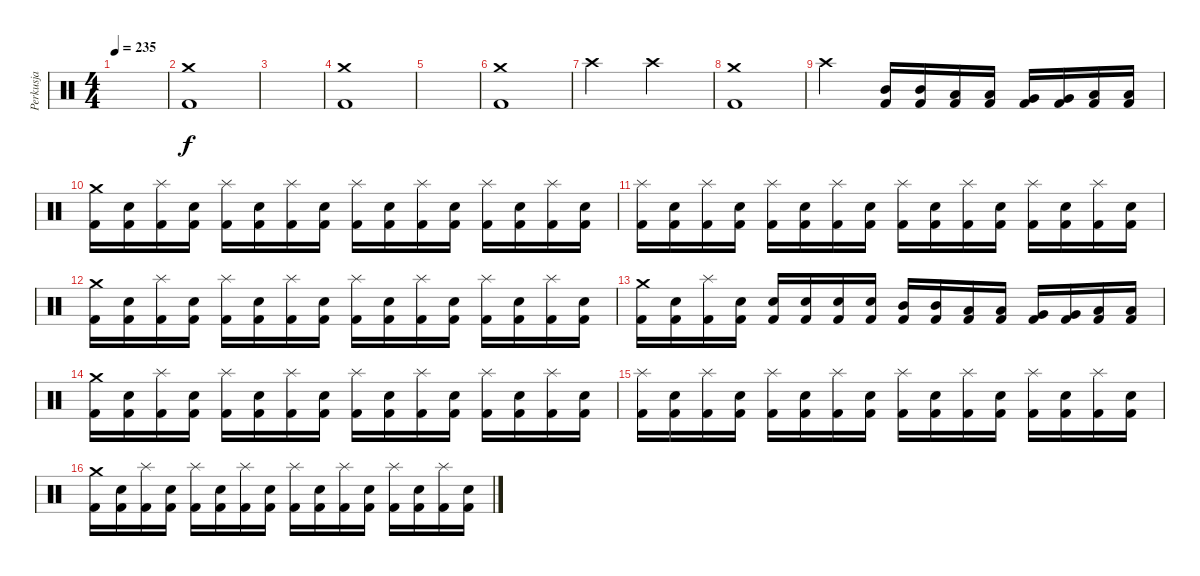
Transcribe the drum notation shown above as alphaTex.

\track ("Perkusja" "Perkusja") {instrument percussion}
\staff {score}
\articulation defaults
\ts (4 4)
\tempo 235
\clef neutral
\ks c
|
("Kick (hit) 2" "Crash medium (hit)").1 |
|
("Kick (hit) 2" "Crash medium (hit)").1 |
|
("Kick (hit) 2" "Crash medium (hit)").1 |
"Crash high (hit)".2 "Crash high (hit)".2 |
("Kick (hit) 2" "Crash medium (hit)").1 |
"Crash high (hit)".2 ("Mid Tom (hit)" "Kick (hit) 2").16 ("Mid Tom (hit)" "Kick (hit) 2").16 ("Low Tom (hit)" "Kick (hit) 2").16 ("Low Tom (hit)" "Kick (hit) 2").16 ("Very Low Tom (hit)" "Kick (hit) 2").16 ("Very Low Tom (hit)" "Kick (hit) 2").16 ("Low Floor Tom (hit)" "Kick (hit) 2").16 ("Low Floor Tom (hit)" "Kick (hit) 2").16 |
("Crash medium (hit)" "Kick (hit) 2").16 ("Snare (hit) 2" "Kick (hit) 2").16 ("Splash (hit)" "Kick (hit) 2").16 ("Snare (hit) 2" "Kick (hit) 2").16 ("Splash (hit)" "Kick (hit) 2").16 ("Snare (hit) 2" "Kick (hit) 2").16 ("Splash (hit)" "Kick (hit) 2").16 ("Snare (hit) 2" "Kick (hit) 2").16 ("Splash (hit)" "Kick (hit) 2").16 ("Snare (hit) 2" "Kick (hit) 2").16 ("Splash (hit)" "Kick (hit) 2").16 ("Snare (hit) 2" "Kick (hit) 2").16 ("Splash (hit)" "Kick (hit) 2").16 ("Snare (hit) 2" "Kick (hit) 2").16 ("Splash (hit)" "Kick (hit) 2").16 ("Snare (hit) 2" "Kick (hit) 2").16 |
("Splash (hit)" "Kick (hit) 2").16 ("Snare (hit) 2" "Kick (hit) 2").16 ("Splash (hit)" "Kick (hit) 2").16 ("Snare (hit) 2" "Kick (hit) 2").16 ("Splash (hit)" "Kick (hit) 2").16 ("Snare (hit) 2" "Kick (hit) 2").16 ("Splash (hit)" "Kick (hit) 2").16 ("Snare (hit) 2" "Kick (hit) 2").16 ("Splash (hit)" "Kick (hit) 2").16 ("Snare (hit) 2" "Kick (hit) 2").16 ("Splash (hit)" "Kick (hit) 2").16 ("Snare (hit) 2" "Kick (hit) 2").16 ("Splash (hit)" "Kick (hit) 2").16 ("Snare (hit) 2" "Kick (hit) 2").16 ("Splash (hit)" "Kick (hit) 2").16 ("Snare (hit) 2" "Kick (hit) 2").16 |
("Crash medium (hit)" "Kick (hit) 2").16 ("Snare (hit) 2" "Kick (hit) 2").16 ("Splash (hit)" "Kick (hit) 2").16 ("Snare (hit) 2" "Kick (hit) 2").16 ("Splash (hit)" "Kick (hit) 2").16 ("Snare (hit) 2" "Kick (hit) 2").16 ("Splash (hit)" "Kick (hit) 2").16 ("Snare (hit) 2" "Kick (hit) 2").16 ("Splash (hit)" "Kick (hit) 2").16 ("Snare (hit) 2" "Kick (hit) 2").16 ("Splash (hit)" "Kick (hit) 2").16 ("Snare (hit) 2" "Kick (hit) 2").16 ("Splash (hit)" "Kick (hit) 2").16 ("Snare (hit) 2" "Kick (hit) 2").16 ("Splash (hit)" "Kick (hit) 2").16 ("Snare (hit) 2" "Kick (hit) 2").16 |
("Crash medium (hit)" "Kick (hit) 2").16 ("Snare (hit) 2" "Kick (hit) 2").16 ("Splash (hit)" "Kick (hit) 2").16 ("Snare (hit) 2" "Kick (hit) 2").16 ("Electric Snare (hit)" "Kick (hit) 2").16 ("Electric Snare (hit)" "Kick (hit) 2").16 ("Electric Snare (hit)" "Kick (hit) 2").16 ("Electric Snare (hit)" "Kick (hit) 2").16 ("Mid Tom (hit)" "Kick (hit) 2").16 ("Mid Tom (hit)" "Kick (hit) 2").16 ("Low Tom (hit)" "Kick (hit) 2").16 ("Low Tom (hit)" "Kick (hit) 2").16 ("Very Low Tom (hit)" "Kick (hit) 2").16 ("Very Low Tom (hit)" "Kick (hit) 2").16 ("Low Floor Tom (hit)" "Kick (hit) 2").16 ("Low Floor Tom (hit)" "Kick (hit) 2").16 |
("Crash medium (hit)" "Kick (hit) 2").16 ("Snare (hit) 2" "Kick (hit) 2").16 ("Splash (hit)" "Kick (hit) 2").16 ("Snare (hit) 2" "Kick (hit) 2").16 ("Splash (hit)" "Kick (hit) 2").16 ("Snare (hit) 2" "Kick (hit) 2").16 ("Splash (hit)" "Kick (hit) 2").16 ("Snare (hit) 2" "Kick (hit) 2").16 ("Splash (hit)" "Kick (hit) 2").16 ("Snare (hit) 2" "Kick (hit) 2").16 ("Splash (hit)" "Kick (hit) 2").16 ("Snare (hit) 2" "Kick (hit) 2").16 ("Splash (hit)" "Kick (hit) 2").16 ("Snare (hit) 2" "Kick (hit) 2").16 ("Splash (hit)" "Kick (hit) 2").16 ("Snare (hit) 2" "Kick (hit) 2").16 |
("Splash (hit)" "Kick (hit) 2").16 ("Snare (hit) 2" "Kick (hit) 2").16 ("Splash (hit)" "Kick (hit) 2").16 ("Snare (hit) 2" "Kick (hit) 2").16 ("Splash (hit)" "Kick (hit) 2").16 ("Snare (hit) 2" "Kick (hit) 2").16 ("Splash (hit)" "Kick (hit) 2").16 ("Snare (hit) 2" "Kick (hit) 2").16 ("Splash (hit)" "Kick (hit) 2").16 ("Snare (hit) 2" "Kick (hit) 2").16 ("Splash (hit)" "Kick (hit) 2").16 ("Snare (hit) 2" "Kick (hit) 2").16 ("Splash (hit)" "Kick (hit) 2").16 ("Snare (hit) 2" "Kick (hit) 2").16 ("Splash (hit)" "Kick (hit) 2").16 ("Snare (hit) 2" "Kick (hit) 2").16 |
("Crash medium (hit)" "Kick (hit) 2").16 ("Snare (hit) 2" "Kick (hit) 2").16 ("Splash (hit)" "Kick (hit) 2").16 ("Snare (hit) 2" "Kick (hit) 2").16 ("Splash (hit)" "Kick (hit) 2").16 ("Snare (hit) 2" "Kick (hit) 2").16 ("Splash (hit)" "Kick (hit) 2").16 ("Snare (hit) 2" "Kick (hit) 2").16 ("Splash (hit)" "Kick (hit) 2").16 ("Snare (hit) 2" "Kick (hit) 2").16 ("Splash (hit)" "Kick (hit) 2").16 ("Snare (hit) 2" "Kick (hit) 2").16 ("Splash (hit)" "Kick (hit) 2").16 ("Snare (hit) 2" "Kick (hit) 2").16 ("Splash (hit)" "Kick (hit) 2").16 ("Snare (hit) 2" "Kick (hit) 2").16
